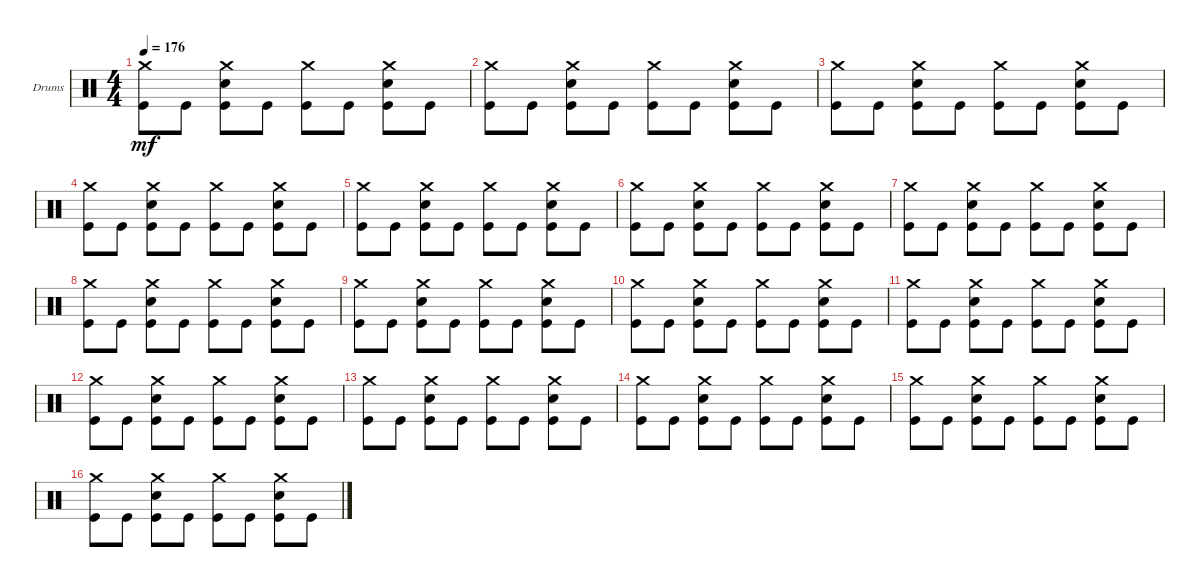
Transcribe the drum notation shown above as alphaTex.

\bracketExtendMode groupsimilarinstruments
\firstSystemTrackNameOrientation horizontal
\otherSystemsTrackNameOrientation horizontal
\track ("Drums" "Drums") {instrument percussion}
\staff {score}
\articulation defaults
\ts (4 4)
\tempo 176
\clef neutral
\ks c
("Crash medium (hit)" "Kick (hit)").8{dy mf} "Kick (hit)".8 ("Crash medium (hit)" "Snare (hit) 2" "Kick (hit)").8 "Kick (hit)".8 ("Crash medium (hit)" "Kick (hit)").8 "Kick (hit)".8 ("Crash medium (hit)" "Snare (hit) 2" "Kick (hit)").8 "Kick (hit)".8 |
("Crash medium (hit)" "Kick (hit)").8 "Kick (hit)".8 ("Crash medium (hit)" "Snare (hit) 2" "Kick (hit)").8 "Kick (hit)".8 ("Crash medium (hit)" "Kick (hit)").8 "Kick (hit)".8 ("Crash medium (hit)" "Snare (hit) 2" "Kick (hit)").8 "Kick (hit)".8 |
("Crash medium (hit)" "Kick (hit)").8 "Kick (hit)".8 ("Crash medium (hit)" "Snare (hit) 2" "Kick (hit)").8 "Kick (hit)".8 ("Crash medium (hit)" "Kick (hit)").8 "Kick (hit)".8 ("Crash medium (hit)" "Snare (hit) 2" "Kick (hit)").8 "Kick (hit)".8 |
("Crash medium (hit)" "Kick (hit)").8 "Kick (hit)".8 ("Crash medium (hit)" "Snare (hit) 2" "Kick (hit)").8 "Kick (hit)".8 ("Crash medium (hit)" "Kick (hit)").8 "Kick (hit)".8 ("Crash medium (hit)" "Snare (hit) 2" "Kick (hit)").8 "Kick (hit)".8 |
("Crash medium (hit)" "Kick (hit)").8 "Kick (hit)".8 ("Crash medium (hit)" "Snare (hit) 2" "Kick (hit)").8 "Kick (hit)".8 ("Crash medium (hit)" "Kick (hit)").8 "Kick (hit)".8 ("Crash medium (hit)" "Snare (hit) 2" "Kick (hit)").8 "Kick (hit)".8 |
("Crash medium (hit)" "Kick (hit)").8 "Kick (hit)".8 ("Crash medium (hit)" "Snare (hit) 2" "Kick (hit)").8 "Kick (hit)".8 ("Crash medium (hit)" "Kick (hit)").8 "Kick (hit)".8 ("Crash medium (hit)" "Snare (hit) 2" "Kick (hit)").8 "Kick (hit)".8 |
("Crash medium (hit)" "Kick (hit)").8 "Kick (hit)".8 ("Crash medium (hit)" "Snare (hit) 2" "Kick (hit)").8 "Kick (hit)".8 ("Crash medium (hit)" "Kick (hit)").8 "Kick (hit)".8 ("Crash medium (hit)" "Snare (hit) 2" "Kick (hit)").8 "Kick (hit)".8 |
("Crash medium (hit)" "Kick (hit)").8 "Kick (hit)".8 ("Crash medium (hit)" "Snare (hit) 2" "Kick (hit)").8 "Kick (hit)".8 ("Crash medium (hit)" "Kick (hit)").8 "Kick (hit)".8 ("Crash medium (hit)" "Snare (hit) 2" "Kick (hit)").8 "Kick (hit)".8 |
("Crash medium (hit)" "Kick (hit)").8 "Kick (hit)".8 ("Crash medium (hit)" "Snare (hit) 2" "Kick (hit)").8 "Kick (hit)".8 ("Crash medium (hit)" "Kick (hit)").8 "Kick (hit)".8 ("Crash medium (hit)" "Snare (hit) 2" "Kick (hit)").8 "Kick (hit)".8 |
("Crash medium (hit)" "Kick (hit)").8 "Kick (hit)".8 ("Crash medium (hit)" "Snare (hit) 2" "Kick (hit)").8 "Kick (hit)".8 ("Crash medium (hit)" "Kick (hit)").8 "Kick (hit)".8 ("Crash medium (hit)" "Snare (hit) 2" "Kick (hit)").8 "Kick (hit)".8 |
("Crash medium (hit)" "Kick (hit)").8 "Kick (hit)".8 ("Crash medium (hit)" "Snare (hit) 2" "Kick (hit)").8 "Kick (hit)".8 ("Crash medium (hit)" "Kick (hit)").8 "Kick (hit)".8 ("Crash medium (hit)" "Snare (hit) 2" "Kick (hit)").8 "Kick (hit)".8 |
("Crash medium (hit)" "Kick (hit)").8 "Kick (hit)".8 ("Crash medium (hit)" "Snare (hit) 2" "Kick (hit)").8 "Kick (hit)".8 ("Crash medium (hit)" "Kick (hit)").8 "Kick (hit)".8 ("Crash medium (hit)" "Snare (hit) 2" "Kick (hit)").8 "Kick (hit)".8 |
("Crash medium (hit)" "Kick (hit)").8 "Kick (hit)".8 ("Crash medium (hit)" "Snare (hit) 2" "Kick (hit)").8 "Kick (hit)".8 ("Crash medium (hit)" "Kick (hit)").8 "Kick (hit)".8 ("Crash medium (hit)" "Snare (hit) 2" "Kick (hit)").8 "Kick (hit)".8 |
("Crash medium (hit)" "Kick (hit)").8 "Kick (hit)".8 ("Crash medium (hit)" "Snare (hit) 2" "Kick (hit)").8 "Kick (hit)".8 ("Crash medium (hit)" "Kick (hit)").8 "Kick (hit)".8 ("Crash medium (hit)" "Snare (hit) 2" "Kick (hit)").8 "Kick (hit)".8 |
("Crash medium (hit)" "Kick (hit)").8 "Kick (hit)".8 ("Crash medium (hit)" "Snare (hit) 2" "Kick (hit)").8 "Kick (hit)".8 ("Crash medium (hit)" "Kick (hit)").8 "Kick (hit)".8 ("Crash medium (hit)" "Snare (hit) 2" "Kick (hit)").8 "Kick (hit)".8 |
("Crash medium (hit)" "Kick (hit)").8 "Kick (hit)".8 ("Crash medium (hit)" "Snare (hit) 2" "Kick (hit)").8 "Kick (hit)".8 ("Crash medium (hit)" "Kick (hit)").8 "Kick (hit)".8 ("Crash medium (hit)" "Snare (hit) 2" "Kick (hit)").8 "Kick (hit)".8
